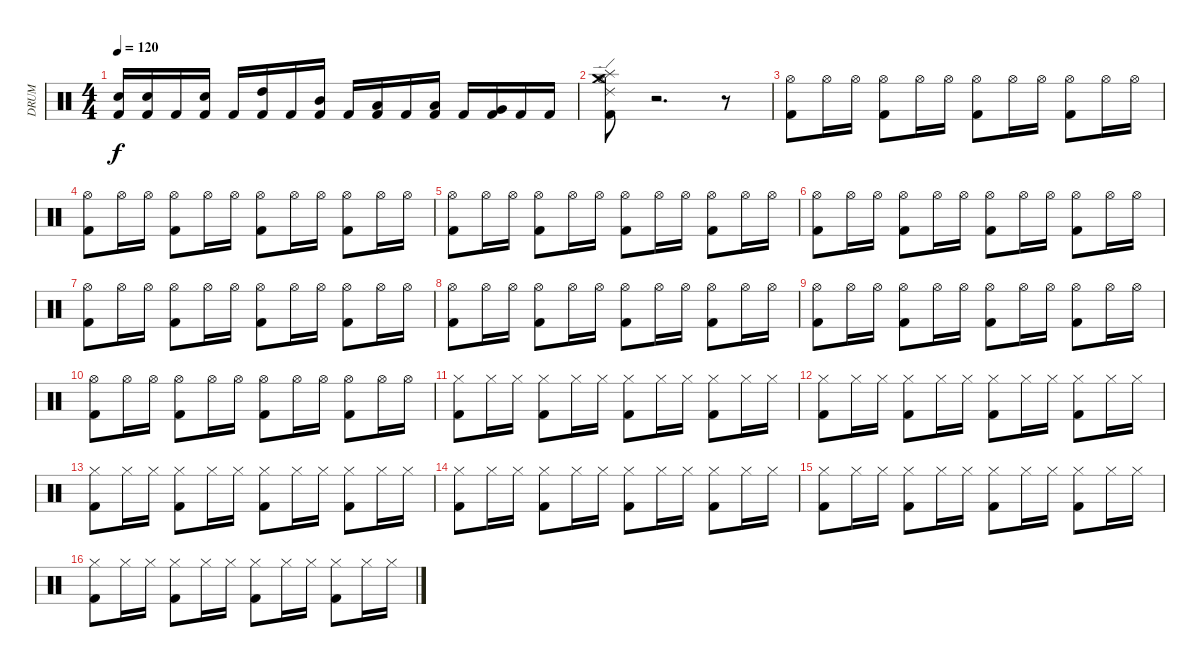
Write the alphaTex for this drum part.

\track (" DRUM" " DRUM") {instrument percussion}
\staff {score}
\articulation defaults
\ts (4 4)
\tempo 120
\clef neutral
\ks c
("Electric Snare (hit)" "Kick (hit) 2").16{dy f} ("Electric Snare (hit)" "Kick (hit) 2").16 "Kick (hit) 2".16 ("Electric Snare (hit)" "Kick (hit) 2").16 "Kick (hit) 2".16 ("High Tom (hit)" "Kick (hit) 2").16 "Kick (hit) 2".16 ("Mid Tom (hit)" "Kick (hit) 2").16 "Kick (hit) 2".16 ("Low Tom (hit)" "Kick (hit) 2").16 "Kick (hit) 2".16 ("Low Tom (hit)" "Kick (hit) 2").16 "Kick (hit) 2".16 ("Very Low Tom (hit)" "Kick (hit) 2").16 "Kick (hit) 2".16 "Kick (hit) 2".16 |
("Hi-Hat (open)" "Ride (edge) 2" "Crash medium (hit)" "Splash (hit)" "Kick (hit) 2").8 r.2{d} r.8 |
("Hi-Hat (open)" "Kick (hit) 2").8 "Hi-Hat (open)".16 "Hi-Hat (open)".16 ("Hi-Hat (open)" "Kick (hit) 2").8 "Hi-Hat (open)".16 "Hi-Hat (open)".16 ("Hi-Hat (open)" "Kick (hit) 2").8 "Hi-Hat (open)".16 "Hi-Hat (open)".16 ("Hi-Hat (open)" "Kick (hit) 2").8 "Hi-Hat (open)".16 "Hi-Hat (open)".16 |
("Hi-Hat (open)" "Kick (hit) 2").8 "Hi-Hat (open)".16 "Hi-Hat (open)".16 ("Hi-Hat (open)" "Kick (hit) 2").8 "Hi-Hat (open)".16 "Hi-Hat (open)".16 ("Hi-Hat (open)" "Kick (hit) 2").8 "Hi-Hat (open)".16 "Hi-Hat (open)".16 ("Hi-Hat (open)" "Kick (hit) 2").8 "Hi-Hat (open)".16 "Hi-Hat (open)".16 |
("Hi-Hat (open)" "Kick (hit) 2").8 "Hi-Hat (open)".16 "Hi-Hat (open)".16 ("Hi-Hat (open)" "Kick (hit) 2").8 "Hi-Hat (open)".16 "Hi-Hat (open)".16 ("Hi-Hat (open)" "Kick (hit) 2").8 "Hi-Hat (open)".16 "Hi-Hat (open)".16 ("Hi-Hat (open)" "Kick (hit) 2").8 "Hi-Hat (open)".16 "Hi-Hat (open)".16 |
("Hi-Hat (open)" "Kick (hit) 2").8 "Hi-Hat (open)".16 "Hi-Hat (open)".16 ("Hi-Hat (open)" "Kick (hit) 2").8 "Hi-Hat (open)".16 "Hi-Hat (open)".16 ("Hi-Hat (open)" "Kick (hit) 2").8 "Hi-Hat (open)".16 "Hi-Hat (open)".16 ("Hi-Hat (open)" "Kick (hit) 2").8 "Hi-Hat (open)".16 "Hi-Hat (open)".16 |
("Hi-Hat (open)" "Kick (hit) 2").8 "Hi-Hat (open)".16 "Hi-Hat (open)".16 ("Hi-Hat (open)" "Kick (hit) 2").8 "Hi-Hat (open)".16 "Hi-Hat (open)".16 ("Hi-Hat (open)" "Kick (hit) 2").8 "Hi-Hat (open)".16 "Hi-Hat (open)".16 ("Hi-Hat (open)" "Kick (hit) 2").8 "Hi-Hat (open)".16 "Hi-Hat (open)".16 |
("Hi-Hat (open)" "Kick (hit) 2").8 "Hi-Hat (open)".16 "Hi-Hat (open)".16 ("Hi-Hat (open)" "Kick (hit) 2").8 "Hi-Hat (open)".16 "Hi-Hat (open)".16 ("Hi-Hat (open)" "Kick (hit) 2").8 "Hi-Hat (open)".16 "Hi-Hat (open)".16 ("Hi-Hat (open)" "Kick (hit) 2").8 "Hi-Hat (open)".16 "Hi-Hat (open)".16 |
("Hi-Hat (open)" "Kick (hit) 2").8 "Hi-Hat (open)".16 "Hi-Hat (open)".16 ("Hi-Hat (open)" "Kick (hit) 2").8 "Hi-Hat (open)".16 "Hi-Hat (open)".16 ("Hi-Hat (open)" "Kick (hit) 2").8 "Hi-Hat (open)".16 "Hi-Hat (open)".16 ("Hi-Hat (open)" "Kick (hit) 2").8 "Hi-Hat (open)".16 "Hi-Hat (open)".16 |
("Hi-Hat (open)" "Kick (hit) 2").8 "Hi-Hat (open)".16 "Hi-Hat (open)".16 ("Hi-Hat (open)" "Kick (hit) 2").8 "Hi-Hat (open)".16 "Hi-Hat (open)".16 ("Hi-Hat (open)" "Kick (hit) 2").8 "Hi-Hat (open)".16 "Hi-Hat (open)".16 ("Hi-Hat (open)" "Kick (hit) 2").8 "Hi-Hat (open)".16 "Hi-Hat (open)".16 |
("Hi-Hat (closed)" "Kick (hit) 2").8 "Hi-Hat (closed)".16 "Hi-Hat (closed)".16 ("Hi-Hat (closed)" "Kick (hit) 2").8 "Hi-Hat (closed)".16 "Hi-Hat (closed)".16 ("Hi-Hat (closed)" "Kick (hit) 2").8 "Hi-Hat (closed)".16 "Hi-Hat (closed)".16 ("Hi-Hat (closed)" "Kick (hit) 2").8 "Hi-Hat (closed)".16 "Hi-Hat (closed)".16 |
("Hi-Hat (closed)" "Kick (hit) 2").8 "Hi-Hat (closed)".16 "Hi-Hat (closed)".16 ("Hi-Hat (closed)" "Kick (hit) 2").8 "Hi-Hat (closed)".16 "Hi-Hat (closed)".16 ("Hi-Hat (closed)" "Kick (hit) 2").8 "Hi-Hat (closed)".16 "Hi-Hat (closed)".16 ("Hi-Hat (closed)" "Kick (hit) 2").8 "Hi-Hat (closed)".16 "Hi-Hat (closed)".16 |
("Hi-Hat (closed)" "Kick (hit) 2").8 "Hi-Hat (closed)".16 "Hi-Hat (closed)".16 ("Hi-Hat (closed)" "Kick (hit) 2").8 "Hi-Hat (closed)".16 "Hi-Hat (closed)".16 ("Hi-Hat (closed)" "Kick (hit) 2").8 "Hi-Hat (closed)".16 "Hi-Hat (closed)".16 ("Hi-Hat (closed)" "Kick (hit) 2").8 "Hi-Hat (closed)".16 "Hi-Hat (closed)".16 |
("Hi-Hat (closed)" "Kick (hit) 2").8 "Hi-Hat (closed)".16 "Hi-Hat (closed)".16 ("Hi-Hat (closed)" "Kick (hit) 2").8 "Hi-Hat (closed)".16 "Hi-Hat (closed)".16 ("Hi-Hat (closed)" "Kick (hit) 2").8 "Hi-Hat (closed)".16 "Hi-Hat (closed)".16 ("Hi-Hat (closed)" "Kick (hit) 2").8 "Hi-Hat (closed)".16 "Hi-Hat (closed)".16 |
("Hi-Hat (closed)" "Kick (hit) 2").8 "Hi-Hat (closed)".16 "Hi-Hat (closed)".16 ("Hi-Hat (closed)" "Kick (hit) 2").8 "Hi-Hat (closed)".16 "Hi-Hat (closed)".16 ("Hi-Hat (closed)" "Kick (hit) 2").8 "Hi-Hat (closed)".16 "Hi-Hat (closed)".16 ("Hi-Hat (closed)" "Kick (hit) 2").8 "Hi-Hat (closed)".16 "Hi-Hat (closed)".16 |
("Hi-Hat (closed)" "Kick (hit) 2").8 "Hi-Hat (closed)".16 "Hi-Hat (closed)".16 ("Hi-Hat (closed)" "Kick (hit) 2").8 "Hi-Hat (closed)".16 "Hi-Hat (closed)".16 ("Hi-Hat (closed)" "Kick (hit) 2").8 "Hi-Hat (closed)".16 "Hi-Hat (closed)".16 ("Hi-Hat (closed)" "Kick (hit) 2").8 "Hi-Hat (closed)".16 "Hi-Hat (closed)".16
